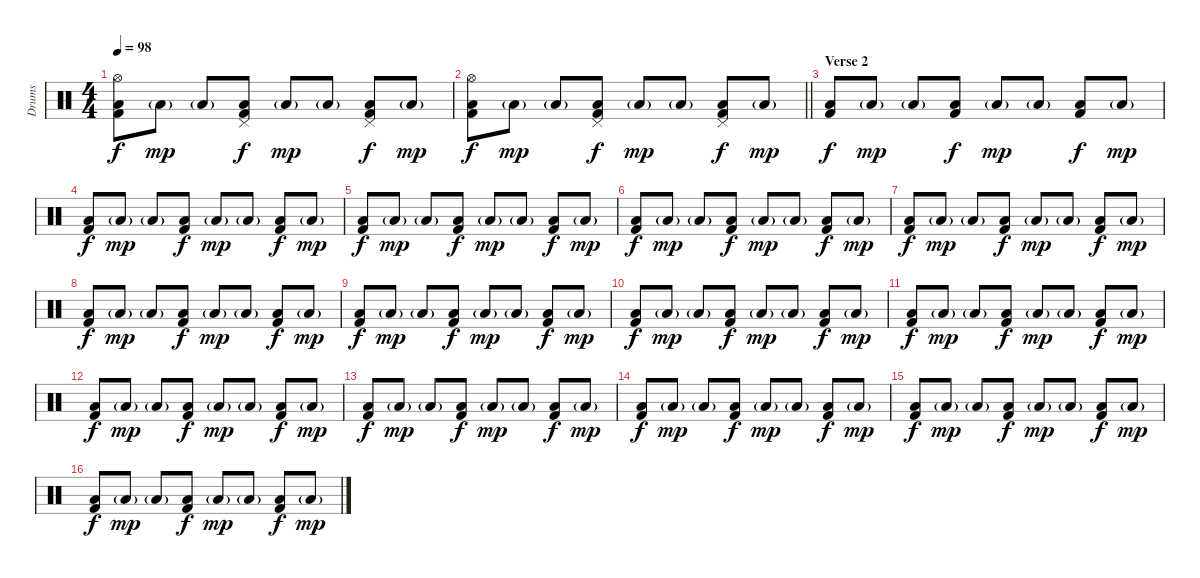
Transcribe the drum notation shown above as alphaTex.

\track ("Drums" "Drums") {instrument percussion}
\staff {score}
\articulation defaults
\ts (4 4)
\tempo 98
\clef neutral
\ks c
("Hi-Hat (open)" "Kick (hit) 2" "Low Tom (hit)").8{dy f} "Low Tom (hit)"{g}.8{dy mp} "Low Tom (hit)"{g}.8 ("Pedal Hi-Hat (hit)" "Kick (hit) 2" "Low Tom (hit)").8{dy f} "Low Tom (hit)"{g}.8{dy mp} "Low Tom (hit)"{g}.8 ("Pedal Hi-Hat (hit)" "Kick (hit) 2" "Low Tom (hit)").8{dy f} "Low Tom (hit)"{g}.8{dy mp} |
\barLineRight lightlight
("Hi-Hat (open)" "Kick (hit) 2" "Low Tom (hit)").8{dy f} "Low Tom (hit)"{g}.8{dy mp} "Low Tom (hit)"{g}.8 ("Pedal Hi-Hat (hit)" "Kick (hit) 2" "Low Tom (hit)").8{dy f} "Low Tom (hit)"{g}.8{dy mp} "Low Tom (hit)"{g}.8 ("Pedal Hi-Hat (hit)" "Kick (hit) 2" "Low Tom (hit)").8{dy f} "Low Tom (hit)"{g}.8{dy mp} |
\section ("" "Verse 2")
("Kick (hit) 2" "Low Tom (hit)").8{dy f} "Low Tom (hit)"{g}.8{dy mp} "Low Tom (hit)"{g}.8 ("Kick (hit) 2" "Low Tom (hit)").8{dy f} "Low Tom (hit)"{g}.8{dy mp} "Low Tom (hit)"{g}.8 ("Kick (hit) 2" "Low Tom (hit)").8{dy f} "Low Tom (hit)"{g}.8{dy mp} |
("Kick (hit) 2" "Low Tom (hit)").8{dy f} "Low Tom (hit)"{g}.8{dy mp} "Low Tom (hit)"{g}.8 ("Kick (hit) 2" "Low Tom (hit)").8{dy f} "Low Tom (hit)"{g}.8{dy mp} "Low Tom (hit)"{g}.8 ("Kick (hit) 2" "Low Tom (hit)").8{dy f} "Low Tom (hit)"{g}.8{dy mp} |
("Kick (hit) 2" "Low Tom (hit)").8{dy f} "Low Tom (hit)"{g}.8{dy mp} "Low Tom (hit)"{g}.8 ("Kick (hit) 2" "Low Tom (hit)").8{dy f} "Low Tom (hit)"{g}.8{dy mp} "Low Tom (hit)"{g}.8 ("Kick (hit) 2" "Low Tom (hit)").8{dy f} "Low Tom (hit)"{g}.8{dy mp} |
("Kick (hit) 2" "Low Tom (hit)").8{dy f} "Low Tom (hit)"{g}.8{dy mp} "Low Tom (hit)"{g}.8 ("Kick (hit) 2" "Low Tom (hit)").8{dy f} "Low Tom (hit)"{g}.8{dy mp} "Low Tom (hit)"{g}.8 ("Kick (hit) 2" "Low Tom (hit)").8{dy f} "Low Tom (hit)"{g}.8{dy mp} |
("Kick (hit) 2" "Low Tom (hit)").8{dy f} "Low Tom (hit)"{g}.8{dy mp} "Low Tom (hit)"{g}.8 ("Kick (hit) 2" "Low Tom (hit)").8{dy f} "Low Tom (hit)"{g}.8{dy mp} "Low Tom (hit)"{g}.8 ("Kick (hit) 2" "Low Tom (hit)").8{dy f} "Low Tom (hit)"{g}.8{dy mp} |
("Kick (hit) 2" "Low Tom (hit)").8{dy f} "Low Tom (hit)"{g}.8{dy mp} "Low Tom (hit)"{g}.8 ("Kick (hit) 2" "Low Tom (hit)").8{dy f} "Low Tom (hit)"{g}.8{dy mp} "Low Tom (hit)"{g}.8 ("Kick (hit) 2" "Low Tom (hit)").8{dy f} "Low Tom (hit)"{g}.8{dy mp} |
("Kick (hit) 2" "Low Tom (hit)").8{dy f} "Low Tom (hit)"{g}.8{dy mp} "Low Tom (hit)"{g}.8 ("Kick (hit) 2" "Low Tom (hit)").8{dy f} "Low Tom (hit)"{g}.8{dy mp} "Low Tom (hit)"{g}.8 ("Kick (hit) 2" "Low Tom (hit)").8{dy f} "Low Tom (hit)"{g}.8{dy mp} |
("Kick (hit) 2" "Low Tom (hit)").8{dy f} "Low Tom (hit)"{g}.8{dy mp} "Low Tom (hit)"{g}.8 ("Kick (hit) 2" "Low Tom (hit)").8{dy f} "Low Tom (hit)"{g}.8{dy mp} "Low Tom (hit)"{g}.8 ("Kick (hit) 2" "Low Tom (hit)").8{dy f} "Low Tom (hit)"{g}.8{dy mp} |
("Kick (hit) 2" "Low Tom (hit)").8{dy f} "Low Tom (hit)"{g}.8{dy mp} "Low Tom (hit)"{g}.8 ("Kick (hit) 2" "Low Tom (hit)").8{dy f} "Low Tom (hit)"{g}.8{dy mp} "Low Tom (hit)"{g}.8 ("Kick (hit) 2" "Low Tom (hit)").8{dy f} "Low Tom (hit)"{g}.8{dy mp} |
("Kick (hit) 2" "Low Tom (hit)").8{dy f} "Low Tom (hit)"{g}.8{dy mp} "Low Tom (hit)"{g}.8 ("Kick (hit) 2" "Low Tom (hit)").8{dy f} "Low Tom (hit)"{g}.8{dy mp} "Low Tom (hit)"{g}.8 ("Kick (hit) 2" "Low Tom (hit)").8{dy f} "Low Tom (hit)"{g}.8{dy mp} |
("Kick (hit) 2" "Low Tom (hit)").8{dy f} "Low Tom (hit)"{g}.8{dy mp} "Low Tom (hit)"{g}.8 ("Kick (hit) 2" "Low Tom (hit)").8{dy f} "Low Tom (hit)"{g}.8{dy mp} "Low Tom (hit)"{g}.8 ("Kick (hit) 2" "Low Tom (hit)").8{dy f} "Low Tom (hit)"{g}.8{dy mp} |
("Kick (hit) 2" "Low Tom (hit)").8{dy f} "Low Tom (hit)"{g}.8{dy mp} "Low Tom (hit)"{g}.8 ("Kick (hit) 2" "Low Tom (hit)").8{dy f} "Low Tom (hit)"{g}.8{dy mp} "Low Tom (hit)"{g}.8 ("Kick (hit) 2" "Low Tom (hit)").8{dy f} "Low Tom (hit)"{g}.8{dy mp} |
("Kick (hit) 2" "Low Tom (hit)").8{dy f} "Low Tom (hit)"{g}.8{dy mp} "Low Tom (hit)"{g}.8 ("Kick (hit) 2" "Low Tom (hit)").8{dy f} "Low Tom (hit)"{g}.8{dy mp} "Low Tom (hit)"{g}.8 ("Kick (hit) 2" "Low Tom (hit)").8{dy f} "Low Tom (hit)"{g}.8{dy mp} |
("Kick (hit) 2" "Low Tom (hit)").8{dy f} "Low Tom (hit)"{g}.8{dy mp} "Low Tom (hit)"{g}.8 ("Kick (hit) 2" "Low Tom (hit)").8{dy f} "Low Tom (hit)"{g}.8{dy mp} "Low Tom (hit)"{g}.8 ("Kick (hit) 2" "Low Tom (hit)").8{dy f} "Low Tom (hit)"{g}.8{dy mp}
